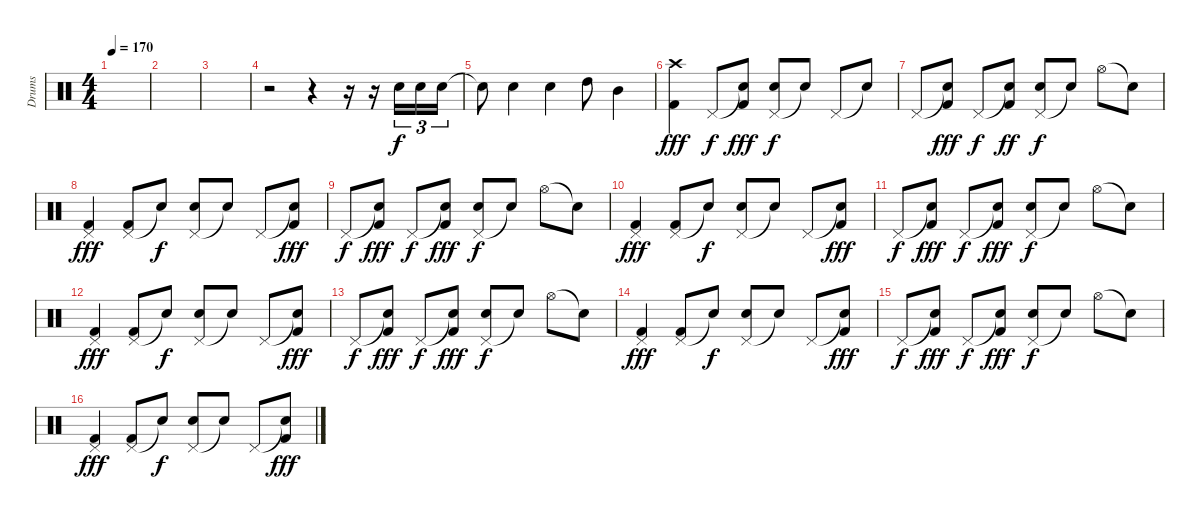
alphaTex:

\track ("Drums" "Drums") {instrument percussion}
\staff {score}
\articulation defaults
\ts (4 4)
\tempo 170
\clef neutral
\ks c
|
|
|
r.2 r.4 r.16 r.16 "Electric Snare (hit)".16{tu (3 2)} "Electric Snare (hit)".16{tu (3 2)} "Electric Snare (hit)".16{tu (3 2)} |
"Snare (hit)"{t}.8 "Electric Snare (hit)".4 "Electric Snare (hit)".4 "High Tom (hit)".8 "Mid Tom (hit)".4 |
("Crash high (hit)" "Kick (hit) 2").4{dy fff} "Pedal Hi-Hat (hit)".8{dy f} ("Snare (hit)"{t} "Kick (hit) 2").8{dy fff} ("Pedal Hi-Hat (hit)" "Electric Snare (hit)").8{dy f} "Snare (hit)"{t}.8 "Pedal Hi-Hat (hit)".8 "Snare (hit)"{t}.8 |
"Pedal Hi-Hat (hit)".8 ("Snare (hit)"{t} "Kick (hit) 2").8{dy fff} "Pedal Hi-Hat (hit)".8{dy f} ("Snare (hit)"{t} "Kick (hit) 2").8{dy ff} ("Pedal Hi-Hat (hit)" "Electric Snare (hit)").8{dy f} "Snare (hit)"{t}.8 "Hi-Hat (open)".8 "Snare (hit)"{t}.8 |
("Pedal Hi-Hat (hit)" "Kick (hit) 2").4{dy fff} ("Pedal Hi-Hat (hit)" "Kick (hit) 2").8 "Snare (hit)"{t}.8{dy f} ("Pedal Hi-Hat (hit)" "Electric Snare (hit)").8 "Snare (hit)"{t}.8 "Pedal Hi-Hat (hit)".8 ("Snare (hit)"{t} "Kick (hit) 2").8{dy fff} |
"Pedal Hi-Hat (hit)".8{dy f} ("Snare (hit)"{t} "Kick (hit) 2").8{dy fff} "Pedal Hi-Hat (hit)".8{dy f} ("Snare (hit)"{t} "Kick (hit) 2").8{dy fff} ("Pedal Hi-Hat (hit)" "Electric Snare (hit)").8{dy f} "Snare (hit)"{t}.8 "Hi-Hat (open)".8 "Snare (hit)"{t}.8 |
("Pedal Hi-Hat (hit)" "Kick (hit) 2").4{dy fff} ("Pedal Hi-Hat (hit)" "Kick (hit) 2").8 "Snare (hit)"{t}.8{dy f} ("Pedal Hi-Hat (hit)" "Electric Snare (hit)").8 "Snare (hit)"{t}.8 "Pedal Hi-Hat (hit)".8 ("Snare (hit)"{t} "Kick (hit) 2").8{dy fff} |
"Pedal Hi-Hat (hit)".8{dy f} ("Snare (hit)"{t} "Kick (hit) 2").8{dy fff} "Pedal Hi-Hat (hit)".8{dy f} ("Snare (hit)"{t} "Kick (hit) 2").8{dy fff} ("Pedal Hi-Hat (hit)" "Electric Snare (hit)").8{dy f} "Snare (hit)"{t}.8 "Hi-Hat (open)".8 "Snare (hit)"{t}.8 |
("Pedal Hi-Hat (hit)" "Kick (hit) 2").4{dy fff} ("Pedal Hi-Hat (hit)" "Kick (hit) 2").8 "Snare (hit)"{t}.8{dy f} ("Pedal Hi-Hat (hit)" "Electric Snare (hit)").8 "Snare (hit)"{t}.8 "Pedal Hi-Hat (hit)".8 ("Snare (hit)"{t} "Kick (hit) 2").8{dy fff} |
"Pedal Hi-Hat (hit)".8{dy f} ("Snare (hit)"{t} "Kick (hit) 2").8{dy fff} "Pedal Hi-Hat (hit)".8{dy f} ("Snare (hit)"{t} "Kick (hit) 2").8{dy fff} ("Pedal Hi-Hat (hit)" "Electric Snare (hit)").8{dy f} "Snare (hit)"{t}.8 "Hi-Hat (open)".8 "Snare (hit)"{t}.8 |
("Pedal Hi-Hat (hit)" "Kick (hit) 2").4{dy fff} ("Pedal Hi-Hat (hit)" "Kick (hit) 2").8 "Snare (hit)"{t}.8{dy f} ("Pedal Hi-Hat (hit)" "Electric Snare (hit)").8 "Snare (hit)"{t}.8 "Pedal Hi-Hat (hit)".8 ("Snare (hit)"{t} "Kick (hit) 2").8{dy fff} |
"Pedal Hi-Hat (hit)".8{dy f} ("Snare (hit)"{t} "Kick (hit) 2").8{dy fff} "Pedal Hi-Hat (hit)".8{dy f} ("Snare (hit)"{t} "Kick (hit) 2").8{dy fff} ("Pedal Hi-Hat (hit)" "Electric Snare (hit)").8{dy f} "Snare (hit)"{t}.8 "Hi-Hat (open)".8 "Snare (hit)"{t}.8 |
("Pedal Hi-Hat (hit)" "Kick (hit) 2").4{dy fff} ("Pedal Hi-Hat (hit)" "Kick (hit) 2").8 "Snare (hit)"{t}.8{dy f} ("Pedal Hi-Hat (hit)" "Electric Snare (hit)").8 "Snare (hit)"{t}.8 "Pedal Hi-Hat (hit)".8 ("Snare (hit)"{t} "Kick (hit) 2").8{dy fff}
